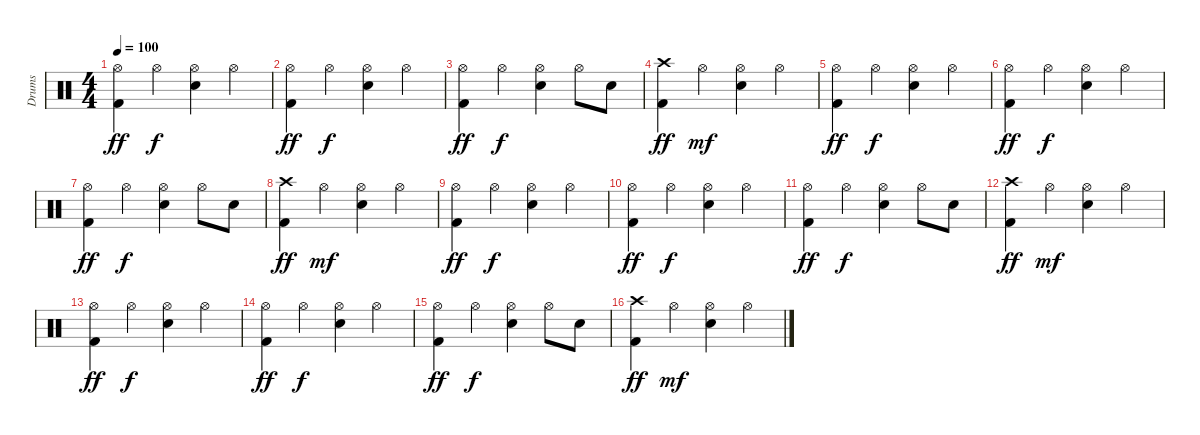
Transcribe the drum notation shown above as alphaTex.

\track ("Drums" "Drums") {instrument percussion}
\staff {score}
\articulation defaults
\ts (4 4)
\tempo 100
\clef neutral
\ks c
("Hi-Hat (open)" "Kick (hit) 2").4{dy ff} "Hi-Hat (open)".4{dy f} ("Hi-Hat (open)" "Electric Snare (hit)").4 "Hi-Hat (open)".4 |
("Hi-Hat (open)" "Kick (hit) 2").4{dy ff} "Hi-Hat (open)".4{dy f} ("Hi-Hat (open)" "Electric Snare (hit)").4 "Hi-Hat (open)".4 |
("Hi-Hat (open)" "Kick (hit) 2").4{dy ff} "Hi-Hat (open)".4{dy f} ("Hi-Hat (open)" "Electric Snare (hit)").4 "Hi-Hat (open)".8 "Electric Snare (hit)".8 |
("Crash high (hit)" "Kick (hit) 2").4{dy ff} "Hi-Hat (open)".4{dy mf} ("Hi-Hat (open)" "Electric Snare (hit)").4 "Hi-Hat (open)".4 |
("Hi-Hat (open)" "Kick (hit) 2").4{dy ff} "Hi-Hat (open)".4{dy f} ("Hi-Hat (open)" "Electric Snare (hit)").4 "Hi-Hat (open)".4 |
("Hi-Hat (open)" "Kick (hit) 2").4{dy ff} "Hi-Hat (open)".4{dy f} ("Hi-Hat (open)" "Electric Snare (hit)").4 "Hi-Hat (open)".4 |
("Hi-Hat (open)" "Kick (hit) 2").4{dy ff} "Hi-Hat (open)".4{dy f} ("Hi-Hat (open)" "Electric Snare (hit)").4 "Hi-Hat (open)".8 "Electric Snare (hit)".8 |
("Crash high (hit)" "Kick (hit) 2").4{dy ff} "Hi-Hat (open)".4{dy mf} ("Hi-Hat (open)" "Electric Snare (hit)").4 "Hi-Hat (open)".4 |
("Hi-Hat (open)" "Kick (hit) 2").4{dy ff} "Hi-Hat (open)".4{dy f} ("Hi-Hat (open)" "Electric Snare (hit)").4 "Hi-Hat (open)".4 |
("Hi-Hat (open)" "Kick (hit) 2").4{dy ff} "Hi-Hat (open)".4{dy f} ("Hi-Hat (open)" "Electric Snare (hit)").4 "Hi-Hat (open)".4 |
("Hi-Hat (open)" "Kick (hit) 2").4{dy ff} "Hi-Hat (open)".4{dy f} ("Hi-Hat (open)" "Electric Snare (hit)").4 "Hi-Hat (open)".8 "Electric Snare (hit)".8 |
("Crash high (hit)" "Kick (hit) 2").4{dy ff} "Hi-Hat (open)".4{dy mf} ("Hi-Hat (open)" "Electric Snare (hit)").4 "Hi-Hat (open)".4 |
("Hi-Hat (open)" "Kick (hit) 2").4{dy ff} "Hi-Hat (open)".4{dy f} ("Hi-Hat (open)" "Electric Snare (hit)").4 "Hi-Hat (open)".4 |
("Hi-Hat (open)" "Kick (hit) 2").4{dy ff} "Hi-Hat (open)".4{dy f} ("Hi-Hat (open)" "Electric Snare (hit)").4 "Hi-Hat (open)".4 |
("Hi-Hat (open)" "Kick (hit) 2").4{dy ff} "Hi-Hat (open)".4{dy f} ("Hi-Hat (open)" "Electric Snare (hit)").4 "Hi-Hat (open)".8 "Electric Snare (hit)".8 |
("Crash high (hit)" "Kick (hit) 2").4{dy ff} "Hi-Hat (open)".4{dy mf} ("Hi-Hat (open)" "Electric Snare (hit)").4 "Hi-Hat (open)".4
